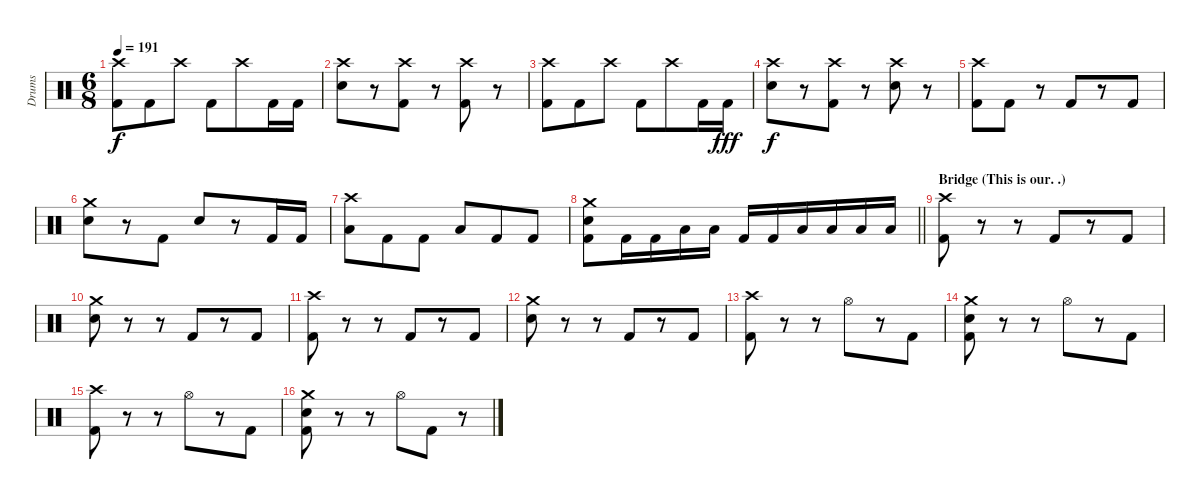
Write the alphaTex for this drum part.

\track ("Drums" "Drums") {instrument percussion}
\staff {score}
\articulation defaults
\ts (6 8)
\tempo 191
\clef neutral
\ks c
("Crash high (hit)" "Kick (hit) 2").8{dy f} "Kick (hit) 2".8 "Crash high (hit)".8 "Kick (hit) 2".8 "Crash high (hit)".8 "Kick (hit) 2".16 "Kick (hit) 2".16 |
("Crash high (hit)" "Snare (hit) 2").8 r.8 ("Crash high (hit)" "Kick (hit) 2").8 r.8 ("Crash high (hit)" "Kick (hit) 2").8 r.8 |
("Crash high (hit)" "Kick (hit) 2").8 "Kick (hit) 2".8 "Crash high (hit)".8 "Kick (hit) 2".8 "Crash high (hit)".8 "Kick (hit) 2".16 "Kick (hit) 2".16{dy fff} |
("Crash high (hit)" "Snare (hit) 2").8{dy f} r.8 ("Crash high (hit)" "Kick (hit) 2").8 r.8 ("Crash high (hit)" "Snare (hit) 2").8 r.8 |
("Crash high (hit)" "Kick (hit) 2").8 "Kick (hit) 2".8 r.8 "Kick (hit) 2".8 r.8 "Kick (hit) 2".8 |
("Crash medium (hit)" "Snare (hit) 2").8 r.8 "Kick (hit) 2".8 "Snare (hit) 2".8 r.8 "Kick (hit) 2".16 "Kick (hit) 2".16 |
("Crash high (hit)" "Low Floor Tom (hit)").8 "Kick (hit) 2".8 "Kick (hit) 2".8 "Low Floor Tom (hit)".8 "Kick (hit) 2".8 "Kick (hit) 2".8 |
\barLineRight lightlight
("Crash medium (hit)" "Snare (hit) 2" "Kick (hit) 2").8 "Kick (hit) 2".16 "Kick (hit) 2".16 "Low Floor Tom (hit)".16 "Low Floor Tom (hit)".16 "Kick (hit) 2".16 "Kick (hit) 2".16 "Low Tom (hit)".16 "Low Tom (hit)".16 "Low Tom (hit)".16 "Low Tom (hit)".16 |
\section ("" "Bridge (This is our. .)")
("Crash high (hit)" "Kick (hit) 2").8 r.8 r.8 "Kick (hit) 2".8 r.8 "Kick (hit) 2".8 |
("Crash medium (hit)" "Snare (hit) 2").8 r.8 r.8 "Kick (hit) 2".8 r.8 "Kick (hit) 2".8 |
("Crash high (hit)" "Kick (hit) 2").8 r.8 r.8 "Kick (hit) 2".8 r.8 "Kick (hit) 2".8 |
("Crash medium (hit)" "Snare (hit) 2").8 r.8 r.8 "Kick (hit) 2".8 r.8 "Kick (hit) 2".8 |
("Crash high (hit)" "Kick (hit) 2").8 r.8 r.8 "Hi-Hat (open)".8 r.8 "Kick (hit) 2".8 |
("Crash medium (hit)" "Snare (hit) 2" "Kick (hit) 2").8 r.8 r.8 "Hi-Hat (open)".8 r.8 "Kick (hit) 2".8 |
("Crash high (hit)" "Kick (hit) 2").8 r.8 r.8 "Hi-Hat (open)".8 r.8 "Kick (hit) 2".8 |
("Crash medium (hit)" "Snare (hit) 2" "Kick (hit) 2").8 r.8 r.8 "Hi-Hat (open)".8 "Kick (hit) 2".8 r.8
